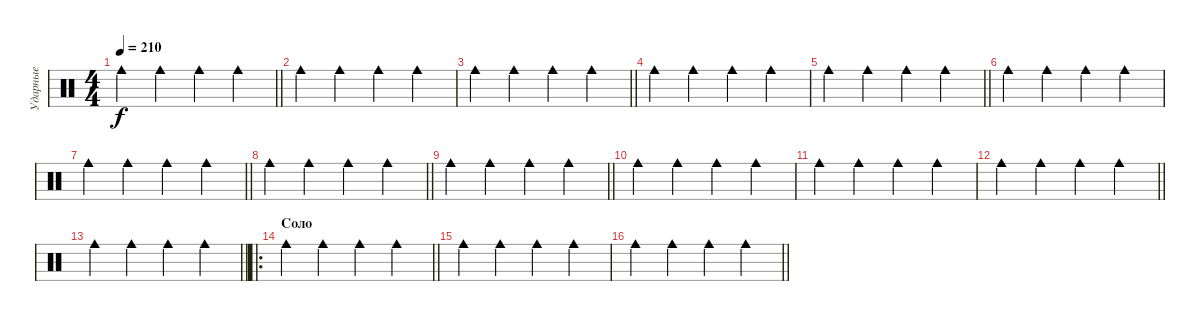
\track ("Ударные" "Ударные") {mute instrument percussion}
\staff {score}
\articulation defaults
\ts (4 4)
\tempo 210
\clef neutral
\barLineRight lightlight
\ks c "Cowbell medium (hit)".4{dy f} "Cowbell medium (hit)".4 "Cowbell medium (hit)".4 "Cowbell medium (hit)".4
|
"Cowbell medium (hit)".4 "Cowbell medium (hit)".4 "Cowbell medium (hit)".4 "Cowbell medium (hit)".4 |
\barLineRight lightlight "Cowbell medium (hit)".4 "Cowbell medium (hit)".4 "Cowbell medium (hit)".4 "Cowbell medium (hit)".4
|
"Cowbell medium (hit)".4 "Cowbell medium (hit)".4 "Cowbell medium (hit)".4 "Cowbell medium (hit)".4 |
\barLineRight lightlight "Cowbell medium (hit)".4 "Cowbell medium (hit)".4 "Cowbell medium (hit)".4 "Cowbell medium (hit)".4
|
"Cowbell medium (hit)".4 "Cowbell medium (hit)".4 "Cowbell medium (hit)".4 "Cowbell medium (hit)".4 |
\barLineRight lightlight "Cowbell medium (hit)".4 "Cowbell medium (hit)".4 "Cowbell medium (hit)".4 "Cowbell medium (hit)".4
|
\barLineRight lightlight "Cowbell medium (hit)".4 "Cowbell medium (hit)".4 "Cowbell medium (hit)".4 "Cowbell medium (hit)".4
|
\barLineRight lightlight "Cowbell medium (hit)".4 "Cowbell medium (hit)".4 "Cowbell medium (hit)".4 "Cowbell medium (hit)".4
|
"Cowbell medium (hit)".4 "Cowbell medium (hit)".4 "Cowbell medium (hit)".4 "Cowbell medium (hit)".4 |
"Cowbell medium (hit)".4 "Cowbell medium (hit)".4 "Cowbell medium (hit)".4 "Cowbell medium (hit)".4 |
\barLineRight lightlight "Cowbell medium (hit)".4 "Cowbell medium (hit)".4 "Cowbell medium (hit)".4 "Cowbell medium (hit)".4
|
\barLineRight lightlight "Cowbell medium (hit)".4 "Cowbell medium (hit)".4 "Cowbell medium (hit)".4 "Cowbell medium (hit)".4
|
\ro
\section ("" "Соло")
\barLineRight lightlight "Cowbell medium (hit)".4 "Cowbell medium (hit)".4 "Cowbell medium (hit)".4 "Cowbell medium (hit)".4
|
"Cowbell medium (hit)".4 "Cowbell medium (hit)".4 "Cowbell medium (hit)".4 "Cowbell medium (hit)".4 |
\barLineRight lightlight "Cowbell medium (hit)".4 "Cowbell medium (hit)".4 "Cowbell medium (hit)".4 "Cowbell medium (hit)".4
